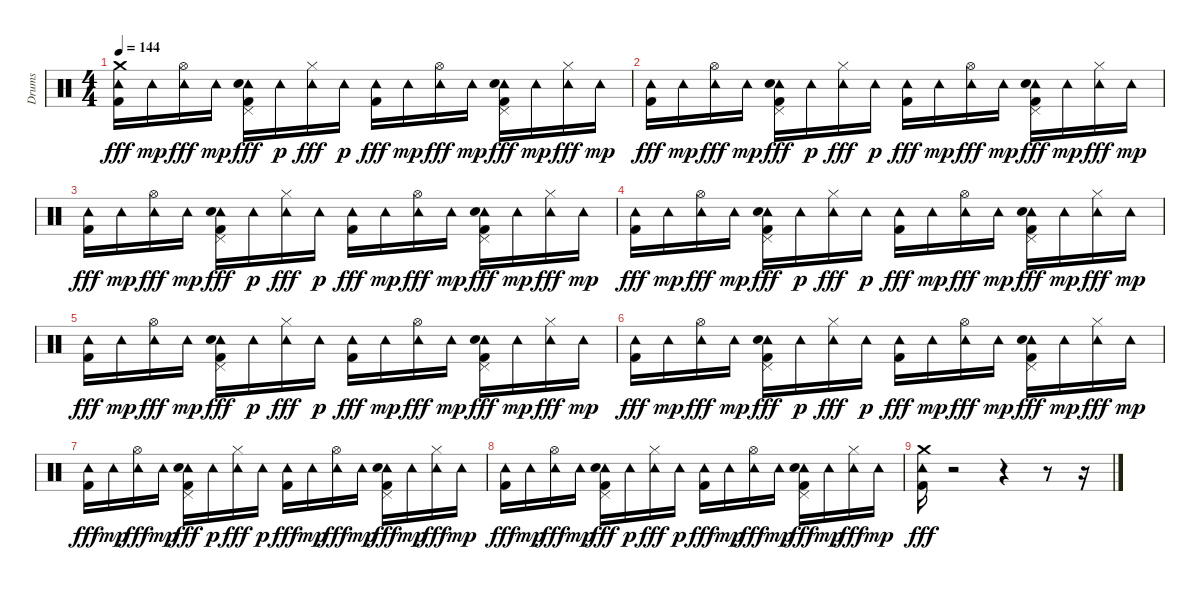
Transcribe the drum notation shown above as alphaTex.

\track ("Drums" "Drums") {instrument percussion}
\staff {score}
\articulation defaults
\ts (4 4)
\tempo 144
\clef neutral
\ks c
("Crash medium (hit)" "Tambourine (hit)" "Kick (hit) 2").16{dy fff} "Tambourine (hit)".16{dy mp} ("Tambourine (hit)" "Hi-Hat (open)").16{dy fff} "Tambourine (hit)".16{dy mp} ("Tambourine (hit)" "Pedal Hi-Hat (hit)" "Kick (hit) 2" "Hand Clap (hit)").16{dy fff} "Tambourine (hit)".16{dy p} ("Tambourine (hit)" "Hi-Hat (closed)").16{dy fff} "Tambourine (hit)".16{dy p} ("Tambourine (hit)" "Kick (hit) 2").16{dy fff} "Tambourine (hit)".16{dy mp} ("Tambourine (hit)" "Hi-Hat (open)").16{dy fff} "Tambourine (hit)".16{dy mp} ("Tambourine (hit)" "Pedal Hi-Hat (hit)" "Kick (hit) 2" "Hand Clap (hit)").16{dy fff} "Tambourine (hit)".16{dy mp} ("Tambourine (hit)" "Hi-Hat (closed)").16{dy fff} "Tambourine (hit)".16{dy mp} |
("Tambourine (hit)" "Kick (hit) 2").16{dy fff} "Tambourine (hit)".16{dy mp} ("Tambourine (hit)" "Hi-Hat (open)").16{dy fff} "Tambourine (hit)".16{dy mp} ("Tambourine (hit)" "Pedal Hi-Hat (hit)" "Kick (hit) 2" "Hand Clap (hit)").16{dy fff} "Tambourine (hit)".16{dy p} ("Tambourine (hit)" "Hi-Hat (closed)").16{dy fff} "Tambourine (hit)".16{dy p} ("Tambourine (hit)" "Kick (hit) 2").16{dy fff} "Tambourine (hit)".16{dy mp} ("Tambourine (hit)" "Hi-Hat (open)").16{dy fff} "Tambourine (hit)".16{dy mp} ("Tambourine (hit)" "Pedal Hi-Hat (hit)" "Kick (hit) 2" "Hand Clap (hit)").16{dy fff} "Tambourine (hit)".16{dy mp} ("Tambourine (hit)" "Hi-Hat (closed)").16{dy fff} "Tambourine (hit)".16{dy mp} |
("Tambourine (hit)" "Kick (hit) 2").16{dy fff} "Tambourine (hit)".16{dy mp} ("Tambourine (hit)" "Hi-Hat (open)").16{dy fff} "Tambourine (hit)".16{dy mp} ("Tambourine (hit)" "Pedal Hi-Hat (hit)" "Kick (hit) 2" "Hand Clap (hit)").16{dy fff} "Tambourine (hit)".16{dy p} ("Tambourine (hit)" "Hi-Hat (closed)").16{dy fff} "Tambourine (hit)".16{dy p} ("Tambourine (hit)" "Kick (hit) 2").16{dy fff} "Tambourine (hit)".16{dy mp} ("Tambourine (hit)" "Hi-Hat (open)").16{dy fff} "Tambourine (hit)".16{dy mp} ("Tambourine (hit)" "Pedal Hi-Hat (hit)" "Kick (hit) 2" "Hand Clap (hit)").16{dy fff} "Tambourine (hit)".16{dy mp} ("Tambourine (hit)" "Hi-Hat (closed)").16{dy fff} "Tambourine (hit)".16{dy mp} |
("Tambourine (hit)" "Kick (hit) 2").16{dy fff} "Tambourine (hit)".16{dy mp} ("Tambourine (hit)" "Hi-Hat (open)").16{dy fff} "Tambourine (hit)".16{dy mp} ("Tambourine (hit)" "Pedal Hi-Hat (hit)" "Kick (hit) 2" "Hand Clap (hit)").16{dy fff} "Tambourine (hit)".16{dy p} ("Tambourine (hit)" "Hi-Hat (closed)").16{dy fff} "Tambourine (hit)".16{dy p} ("Tambourine (hit)" "Kick (hit) 2").16{dy fff} "Tambourine (hit)".16{dy mp} ("Tambourine (hit)" "Hi-Hat (open)").16{dy fff} "Tambourine (hit)".16{dy mp} ("Tambourine (hit)" "Pedal Hi-Hat (hit)" "Kick (hit) 2" "Hand Clap (hit)").16{dy fff} "Tambourine (hit)".16{dy mp} ("Tambourine (hit)" "Hi-Hat (closed)").16{dy fff} "Tambourine (hit)".16{dy mp} |
("Tambourine (hit)" "Kick (hit) 2").16{dy fff} "Tambourine (hit)".16{dy mp} ("Tambourine (hit)" "Hi-Hat (open)").16{dy fff} "Tambourine (hit)".16{dy mp} ("Tambourine (hit)" "Pedal Hi-Hat (hit)" "Kick (hit) 2" "Hand Clap (hit)").16{dy fff} "Tambourine (hit)".16{dy p} ("Tambourine (hit)" "Hi-Hat (closed)").16{dy fff} "Tambourine (hit)".16{dy p} ("Tambourine (hit)" "Kick (hit) 2").16{dy fff} "Tambourine (hit)".16{dy mp} ("Tambourine (hit)" "Hi-Hat (open)").16{dy fff} "Tambourine (hit)".16{dy mp} ("Tambourine (hit)" "Pedal Hi-Hat (hit)" "Kick (hit) 2" "Hand Clap (hit)").16{dy fff} "Tambourine (hit)".16{dy mp} ("Tambourine (hit)" "Hi-Hat (closed)").16{dy fff} "Tambourine (hit)".16{dy mp} |
("Tambourine (hit)" "Kick (hit) 2").16{dy fff} "Tambourine (hit)".16{dy mp} ("Tambourine (hit)" "Hi-Hat (open)").16{dy fff} "Tambourine (hit)".16{dy mp} ("Tambourine (hit)" "Pedal Hi-Hat (hit)" "Kick (hit) 2" "Hand Clap (hit)").16{dy fff} "Tambourine (hit)".16{dy p} ("Tambourine (hit)" "Hi-Hat (closed)").16{dy fff} "Tambourine (hit)".16{dy p} ("Tambourine (hit)" "Kick (hit) 2").16{dy fff} "Tambourine (hit)".16{dy mp} ("Tambourine (hit)" "Hi-Hat (open)").16{dy fff} "Tambourine (hit)".16{dy mp} ("Tambourine (hit)" "Pedal Hi-Hat (hit)" "Kick (hit) 2" "Hand Clap (hit)").16{dy fff} "Tambourine (hit)".16{dy mp} ("Tambourine (hit)" "Hi-Hat (closed)").16{dy fff} "Tambourine (hit)".16{dy mp} |
("Tambourine (hit)" "Kick (hit) 2").16{dy fff} "Tambourine (hit)".16{dy mp} ("Tambourine (hit)" "Hi-Hat (open)").16{dy fff} "Tambourine (hit)".16{dy mp} ("Tambourine (hit)" "Pedal Hi-Hat (hit)" "Kick (hit) 2" "Hand Clap (hit)").16{dy fff} "Tambourine (hit)".16{dy p} ("Tambourine (hit)" "Hi-Hat (closed)").16{dy fff} "Tambourine (hit)".16{dy p} ("Tambourine (hit)" "Kick (hit) 2").16{dy fff} "Tambourine (hit)".16{dy mp} ("Tambourine (hit)" "Hi-Hat (open)").16{dy fff} "Tambourine (hit)".16{dy mp} ("Tambourine (hit)" "Pedal Hi-Hat (hit)" "Kick (hit) 2" "Hand Clap (hit)").16{dy fff} "Tambourine (hit)".16{dy mp} ("Tambourine (hit)" "Hi-Hat (closed)").16{dy fff} "Tambourine (hit)".16{dy mp} |
("Tambourine (hit)" "Kick (hit) 2").16{dy fff} "Tambourine (hit)".16{dy mp} ("Tambourine (hit)" "Hi-Hat (open)").16{dy fff} "Tambourine (hit)".16{dy mp} ("Tambourine (hit)" "Pedal Hi-Hat (hit)" "Kick (hit) 2" "Hand Clap (hit)").16{dy fff} "Tambourine (hit)".16{dy p} ("Tambourine (hit)" "Hi-Hat (closed)").16{dy fff} "Tambourine (hit)".16{dy p} ("Tambourine (hit)" "Kick (hit) 2").16{dy fff} "Tambourine (hit)".16{dy mp} ("Tambourine (hit)" "Hi-Hat (open)").16{dy fff} "Tambourine (hit)".16{dy mp} ("Tambourine (hit)" "Pedal Hi-Hat (hit)" "Kick (hit) 2" "Hand Clap (hit)").16{dy fff} "Tambourine (hit)".16{dy mp} ("Tambourine (hit)" "Hi-Hat (closed)").16{dy fff} "Tambourine (hit)".16{dy mp} |
("Crash medium (hit)" "Tambourine (hit)" "Kick (hit) 2").16{dy fff} r.2 r.4 r.8 r.16
